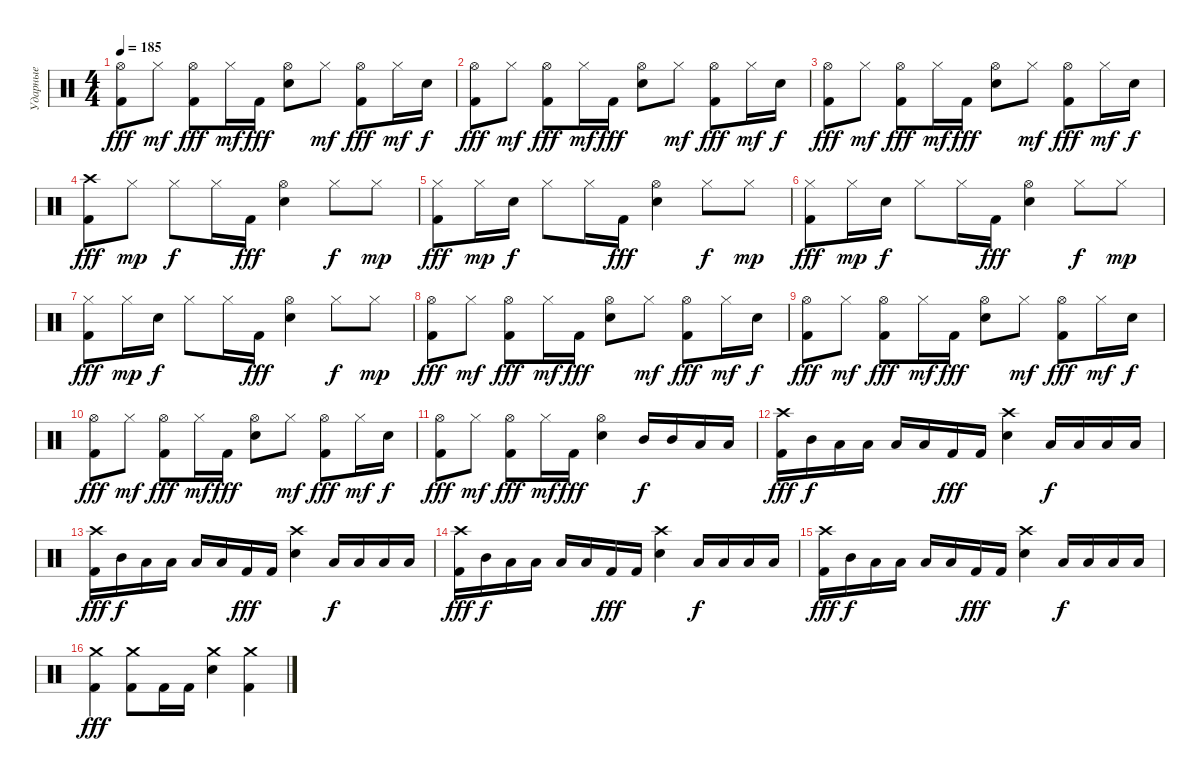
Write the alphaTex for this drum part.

\track ("Ударные" "Ударные") {instrument percussion}
\staff {score}
\articulation defaults
\ts (4 4)
\tempo 185
\clef neutral
\ks c
("Hi-Hat (open)" "Kick (hit) 2").8{dy fff} "Hi-Hat (closed)".8{dy mf} ("Hi-Hat (open)" "Kick (hit) 2").8{dy fff} "Hi-Hat (closed)".16{dy mf} "Kick (hit) 2".16{dy fff} ("Hi-Hat (open)" "Electric Snare (hit)").8 "Hi-Hat (closed)".8{dy mf} ("Hi-Hat (open)" "Kick (hit) 2").8{dy fff} "Hi-Hat (closed)".16{dy mf} "Electric Snare (hit)".16{dy f} |
("Hi-Hat (open)" "Kick (hit) 2").8{dy fff} "Hi-Hat (closed)".8{dy mf} ("Hi-Hat (open)" "Kick (hit) 2").8{dy fff} "Hi-Hat (closed)".16{dy mf} "Kick (hit) 2".16{dy fff} ("Hi-Hat (open)" "Electric Snare (hit)").8 "Hi-Hat (closed)".8{dy mf} ("Hi-Hat (open)" "Kick (hit) 2").8{dy fff} "Hi-Hat (closed)".16{dy mf} "Electric Snare (hit)".16{dy f} |
("Hi-Hat (open)" "Kick (hit) 2").8{dy fff} "Hi-Hat (closed)".8{dy mf} ("Hi-Hat (open)" "Kick (hit) 2").8{dy fff} "Hi-Hat (closed)".16{dy mf} "Kick (hit) 2".16{dy fff} ("Hi-Hat (open)" "Electric Snare (hit)").8 "Hi-Hat (closed)".8{dy mf} ("Hi-Hat (open)" "Kick (hit) 2").8{dy fff} "Hi-Hat (closed)".16{dy mf} "Electric Snare (hit)".16{dy f} |
("Crash high (hit)" "Kick (hit) 2").8{dy fff} "Hi-Hat (closed)".8{dy mp} "Hi-Hat (closed)".8{dy f} "Hi-Hat (closed)".16 "Kick (hit) 2".16{dy fff} ("Hi-Hat (open)" "Electric Snare (hit)").4 "Hi-Hat (closed)".8{dy f} "Hi-Hat (closed)".8{dy mp} |
("Hi-Hat (closed)" "Kick (hit) 2").8{dy fff} "Hi-Hat (closed)".16{dy mp} "Electric Snare (hit)".16{dy f} "Hi-Hat (closed)".8 "Hi-Hat (closed)".16 "Kick (hit) 2".16{dy fff} ("Hi-Hat (open)" "Electric Snare (hit)").4 "Hi-Hat (closed)".8{dy f} "Hi-Hat (closed)".8{dy mp} |
("Hi-Hat (closed)" "Kick (hit) 2").8{dy fff} "Hi-Hat (closed)".16{dy mp} "Electric Snare (hit)".16{dy f} "Hi-Hat (closed)".8 "Hi-Hat (closed)".16 "Kick (hit) 2".16{dy fff} ("Hi-Hat (open)" "Electric Snare (hit)").4 "Hi-Hat (closed)".8{dy f} "Hi-Hat (closed)".8{dy mp} |
("Hi-Hat (closed)" "Kick (hit) 2").8{dy fff} "Hi-Hat (closed)".16{dy mp} "Electric Snare (hit)".16{dy f} "Hi-Hat (closed)".8 "Hi-Hat (closed)".16 "Kick (hit) 2".16{dy fff} ("Hi-Hat (open)" "Electric Snare (hit)").4 "Hi-Hat (closed)".8{dy f} "Hi-Hat (closed)".8{dy mp} |
("Hi-Hat (open)" "Kick (hit) 2").8{dy fff} "Hi-Hat (closed)".8{dy mf} ("Hi-Hat (open)" "Kick (hit) 2").8{dy fff} "Hi-Hat (closed)".16{dy mf} "Kick (hit) 2".16{dy fff} ("Hi-Hat (open)" "Electric Snare (hit)").8 "Hi-Hat (closed)".8{dy mf} ("Hi-Hat (open)" "Kick (hit) 2").8{dy fff} "Hi-Hat (closed)".16{dy mf} "Electric Snare (hit)".16{dy f} |
("Hi-Hat (open)" "Kick (hit) 2").8{dy fff} "Hi-Hat (closed)".8{dy mf} ("Hi-Hat (open)" "Kick (hit) 2").8{dy fff} "Hi-Hat (closed)".16{dy mf} "Kick (hit) 2".16{dy fff} ("Hi-Hat (open)" "Electric Snare (hit)").8 "Hi-Hat (closed)".8{dy mf} ("Hi-Hat (open)" "Kick (hit) 2").8{dy fff} "Hi-Hat (closed)".16{dy mf} "Electric Snare (hit)".16{dy f} |
("Hi-Hat (open)" "Kick (hit) 2").8{dy fff} "Hi-Hat (closed)".8{dy mf} ("Hi-Hat (open)" "Kick (hit) 2").8{dy fff} "Hi-Hat (closed)".16{dy mf} "Kick (hit) 2".16{dy fff} ("Hi-Hat (open)" "Electric Snare (hit)").8 "Hi-Hat (closed)".8{dy mf} ("Hi-Hat (open)" "Kick (hit) 2").8{dy fff} "Hi-Hat (closed)".16{dy mf} "Electric Snare (hit)".16{dy f} |
("Hi-Hat (open)" "Kick (hit) 2").8{dy fff} "Hi-Hat (closed)".8{dy mf} ("Hi-Hat (open)" "Kick (hit) 2").8{dy fff} "Hi-Hat (closed)".16{dy mf} "Kick (hit) 2".16{dy fff} ("Hi-Hat (open)" "Electric Snare (hit)").4 "Mid Tom (hit)".16{dy f} "Mid Tom (hit)".16 "Low Tom (hit)".16 "Low Tom (hit)".16 |
("Crash high (hit)" "Kick (hit) 2").16{dy fff} "Mid Tom (hit)".16{dy f} "Low Tom (hit)".16 "Low Tom (hit)".16 "Low Floor Tom (hit)".16 "Low Floor Tom (hit)".16 "Kick (hit) 2".16{dy fff} "Kick (hit) 2".16 ("Crash high (hit)" "Electric Snare (hit)").4 "Low Tom (hit)".16{dy f} "Low Tom (hit)".16 "Low Floor Tom (hit)".16 "Low Floor Tom (hit)".16 |
("Crash high (hit)" "Kick (hit) 2").16{dy fff} "Mid Tom (hit)".16{dy f} "Low Tom (hit)".16 "Low Tom (hit)".16 "Low Floor Tom (hit)".16 "Low Floor Tom (hit)".16 "Kick (hit) 2".16{dy fff} "Kick (hit) 2".16 ("Crash high (hit)" "Electric Snare (hit)").4 "Low Tom (hit)".16{dy f} "Low Tom (hit)".16 "Low Floor Tom (hit)".16 "Low Floor Tom (hit)".16 |
("Crash high (hit)" "Kick (hit) 2").16{dy fff} "Mid Tom (hit)".16{dy f} "Low Tom (hit)".16 "Low Tom (hit)".16 "Low Floor Tom (hit)".16 "Low Floor Tom (hit)".16 "Kick (hit) 2".16{dy fff} "Kick (hit) 2".16 ("Crash high (hit)" "Electric Snare (hit)").4 "Low Tom (hit)".16{dy f} "Low Tom (hit)".16 "Low Floor Tom (hit)".16 "Low Floor Tom (hit)".16 |
("Crash high (hit)" "Kick (hit) 2").16{dy fff} "Mid Tom (hit)".16{dy f} "Low Tom (hit)".16 "Low Tom (hit)".16 "Low Floor Tom (hit)".16 "Low Floor Tom (hit)".16 "Kick (hit) 2".16{dy fff} "Kick (hit) 2".16 ("Crash high (hit)" "Electric Snare (hit)").4 "Low Tom (hit)".16{dy f} "Low Tom (hit)".16 "Low Floor Tom (hit)".16 "Low Floor Tom (hit)".16 |
("Crash medium (hit)" "Kick (hit) 2").4{dy fff} ("Crash medium (hit)" "Kick (hit) 2").8 "Kick (hit) 2".16 "Kick (hit) 2".16 ("Crash medium (hit)" "Electric Snare (hit)").4 ("Crash medium (hit)" "Kick (hit) 2").4
